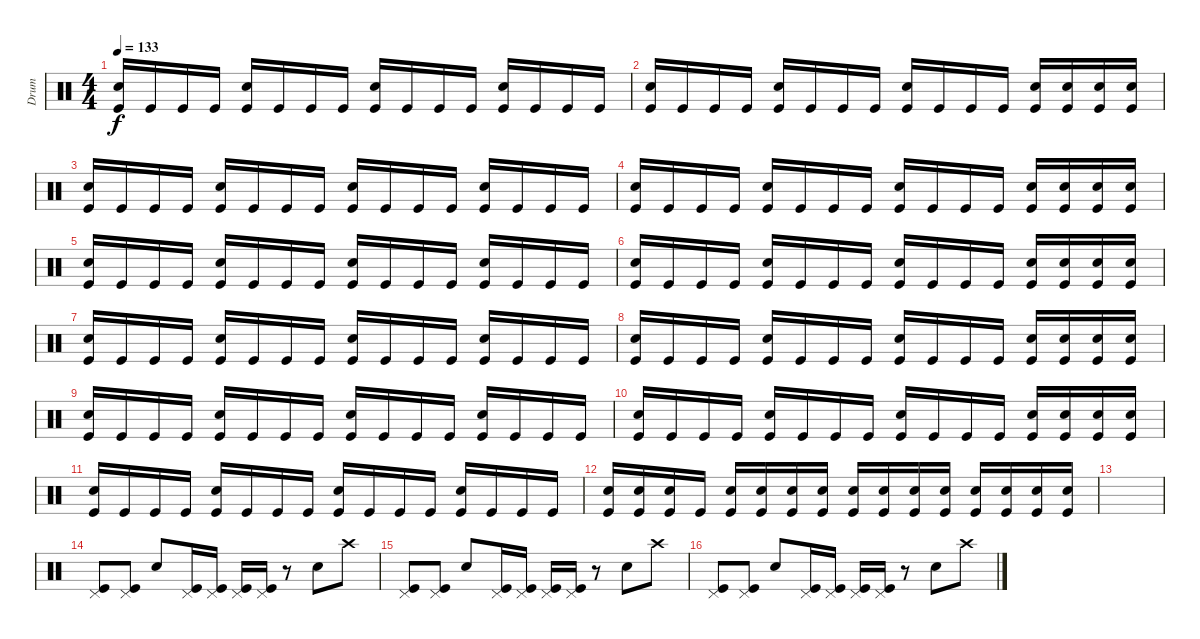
\track ("Drum" "Drum") {instrument percussion}
\staff {score}
\articulation defaults
\ts (4 4)
\tempo 133
\clef neutral
\ks c
("Kick (hit)" "Snare (hit) 2").16{dy f} "Kick (hit)".16 "Kick (hit)".16 "Kick (hit)".16 ("Kick (hit)" "Snare (hit) 2").16 "Kick (hit)".16 "Kick (hit)".16 "Kick (hit)".16 ("Kick (hit)" "Snare (hit) 2").16 "Kick (hit)".16 "Kick (hit)".16 "Kick (hit)".16 ("Kick (hit)" "Snare (hit) 2").16 "Kick (hit)".16 "Kick (hit)".16 "Kick (hit)".16 |
("Kick (hit)" "Snare (hit) 2").16 "Kick (hit)".16 "Kick (hit)".16 "Kick (hit)".16 ("Kick (hit)" "Snare (hit) 2").16 "Kick (hit)".16 "Kick (hit)".16 "Kick (hit)".16 ("Kick (hit)" "Snare (hit) 2").16 "Kick (hit)".16 "Kick (hit)".16 "Kick (hit)".16 ("Kick (hit)" "Snare (hit) 2").16 ("Kick (hit)" "Snare (hit) 2").16 ("Kick (hit)" "Snare (hit) 2").16 ("Kick (hit)" "Snare (hit) 2").16 |
("Kick (hit)" "Snare (hit) 2").16 "Kick (hit)".16 "Kick (hit)".16 "Kick (hit)".16 ("Kick (hit)" "Snare (hit) 2").16 "Kick (hit)".16 "Kick (hit)".16 "Kick (hit)".16 ("Kick (hit)" "Snare (hit) 2").16 "Kick (hit)".16 "Kick (hit)".16 "Kick (hit)".16 ("Kick (hit)" "Snare (hit) 2").16 "Kick (hit)".16 "Kick (hit)".16 "Kick (hit)".16 |
("Kick (hit)" "Snare (hit) 2").16 "Kick (hit)".16 "Kick (hit)".16 "Kick (hit)".16 ("Kick (hit)" "Snare (hit) 2").16 "Kick (hit)".16 "Kick (hit)".16 "Kick (hit)".16 ("Kick (hit)" "Snare (hit) 2").16 "Kick (hit)".16 "Kick (hit)".16 "Kick (hit)".16 ("Kick (hit)" "Snare (hit) 2").16 ("Kick (hit)" "Snare (hit) 2").16 ("Kick (hit)" "Snare (hit) 2").16 ("Kick (hit)" "Snare (hit) 2").16 |
("Kick (hit)" "Snare (hit) 2").16 "Kick (hit)".16 "Kick (hit)".16 "Kick (hit)".16 ("Kick (hit)" "Snare (hit) 2").16 "Kick (hit)".16 "Kick (hit)".16 "Kick (hit)".16 ("Kick (hit)" "Snare (hit) 2").16 "Kick (hit)".16 "Kick (hit)".16 "Kick (hit)".16 ("Kick (hit)" "Snare (hit) 2").16 "Kick (hit)".16 "Kick (hit)".16 "Kick (hit)".16 |
("Kick (hit)" "Snare (hit) 2").16 "Kick (hit)".16 "Kick (hit)".16 "Kick (hit)".16 ("Kick (hit)" "Snare (hit) 2").16 "Kick (hit)".16 "Kick (hit)".16 "Kick (hit)".16 ("Kick (hit)" "Snare (hit) 2").16 "Kick (hit)".16 "Kick (hit)".16 "Kick (hit)".16 ("Kick (hit)" "Snare (hit) 2").16 ("Kick (hit)" "Snare (hit) 2").16 ("Kick (hit)" "Snare (hit) 2").16 ("Kick (hit)" "Snare (hit) 2").16 |
("Kick (hit)" "Snare (hit) 2").16 "Kick (hit)".16 "Kick (hit)".16 "Kick (hit)".16 ("Kick (hit)" "Snare (hit) 2").16 "Kick (hit)".16 "Kick (hit)".16 "Kick (hit)".16 ("Kick (hit)" "Snare (hit) 2").16 "Kick (hit)".16 "Kick (hit)".16 "Kick (hit)".16 ("Kick (hit)" "Snare (hit) 2").16 "Kick (hit)".16 "Kick (hit)".16 "Kick (hit)".16 |
("Kick (hit)" "Snare (hit) 2").16 "Kick (hit)".16 "Kick (hit)".16 "Kick (hit)".16 ("Kick (hit)" "Snare (hit) 2").16 "Kick (hit)".16 "Kick (hit)".16 "Kick (hit)".16 ("Kick (hit)" "Snare (hit) 2").16 "Kick (hit)".16 "Kick (hit)".16 "Kick (hit)".16 ("Kick (hit)" "Snare (hit) 2").16 ("Kick (hit)" "Snare (hit) 2").16 ("Kick (hit)" "Snare (hit) 2").16 ("Kick (hit)" "Snare (hit) 2").16 |
("Kick (hit)" "Snare (hit) 2").16 "Kick (hit)".16 "Kick (hit)".16 "Kick (hit)".16 ("Kick (hit)" "Snare (hit) 2").16 "Kick (hit)".16 "Kick (hit)".16 "Kick (hit)".16 ("Kick (hit)" "Snare (hit) 2").16 "Kick (hit)".16 "Kick (hit)".16 "Kick (hit)".16 ("Kick (hit)" "Snare (hit) 2").16 "Kick (hit)".16 "Kick (hit)".16 "Kick (hit)".16 |
("Kick (hit)" "Snare (hit) 2").16 "Kick (hit)".16 "Kick (hit)".16 "Kick (hit)".16 ("Kick (hit)" "Snare (hit) 2").16 "Kick (hit)".16 "Kick (hit)".16 "Kick (hit)".16 ("Kick (hit)" "Snare (hit) 2").16 "Kick (hit)".16 "Kick (hit)".16 "Kick (hit)".16 ("Kick (hit)" "Snare (hit) 2").16 ("Kick (hit)" "Snare (hit) 2").16 ("Kick (hit)" "Snare (hit) 2").16 ("Kick (hit)" "Snare (hit) 2").16 |
("Kick (hit)" "Snare (hit) 2").16 "Kick (hit)".16 "Kick (hit)".16 "Kick (hit)".16 ("Kick (hit)" "Snare (hit) 2").16 "Kick (hit)".16 "Kick (hit)".16 "Kick (hit)".16 ("Kick (hit)" "Snare (hit) 2").16 "Kick (hit)".16 "Kick (hit)".16 "Kick (hit)".16 ("Kick (hit)" "Snare (hit) 2").16 "Kick (hit)".16 "Kick (hit)".16 "Kick (hit)".16 |
("Kick (hit)" "Snare (hit) 2").16 ("Kick (hit)" "Snare (hit) 2").16 ("Kick (hit)" "Snare (hit) 2").16 "Kick (hit)".16 ("Kick (hit)" "Snare (hit) 2").16 ("Kick (hit)" "Snare (hit) 2").16 ("Kick (hit)" "Snare (hit) 2").16 ("Kick (hit)" "Snare (hit) 2").16 ("Kick (hit)" "Snare (hit) 2").16 ("Kick (hit)" "Snare (hit) 2").16 ("Kick (hit)" "Snare (hit) 2").16 ("Kick (hit)" "Snare (hit) 2").16 ("Kick (hit)" "Snare (hit) 2").16 ("Kick (hit)" "Snare (hit) 2").16 ("Kick (hit)" "Snare (hit) 2").16 ("Kick (hit)" "Snare (hit) 2").16 |
|
("Kick (hit)" "Pedal Hi-Hat (hit)").8 ("Kick (hit)" "Pedal Hi-Hat (hit)").8 "Snare (hit) 2".8 ("Pedal Hi-Hat (hit)" "Kick (hit)").16 ("Kick (hit)" "Pedal Hi-Hat (hit)").16 ("Kick (hit)" "Pedal Hi-Hat (hit)").16 ("Kick (hit)" "Pedal Hi-Hat (hit)").16 r.8 "Snare (hit) 2".8 "Crash high (hit)".8 |
("Kick (hit)" "Pedal Hi-Hat (hit)").8 ("Kick (hit)" "Pedal Hi-Hat (hit)").8 "Snare (hit) 2".8 ("Pedal Hi-Hat (hit)" "Kick (hit)").16 ("Kick (hit)" "Pedal Hi-Hat (hit)").16 ("Kick (hit)" "Pedal Hi-Hat (hit)").16 ("Kick (hit)" "Pedal Hi-Hat (hit)").16 r.8 "Snare (hit) 2".8 "Crash high (hit)".8 |
("Kick (hit)" "Pedal Hi-Hat (hit)").8 ("Kick (hit)" "Pedal Hi-Hat (hit)").8 "Snare (hit) 2".8 ("Pedal Hi-Hat (hit)" "Kick (hit)").16 ("Kick (hit)" "Pedal Hi-Hat (hit)").16 ("Kick (hit)" "Pedal Hi-Hat (hit)").16 ("Kick (hit)" "Pedal Hi-Hat (hit)").16 r.8 "Snare (hit) 2".8 "Crash high (hit)".8
